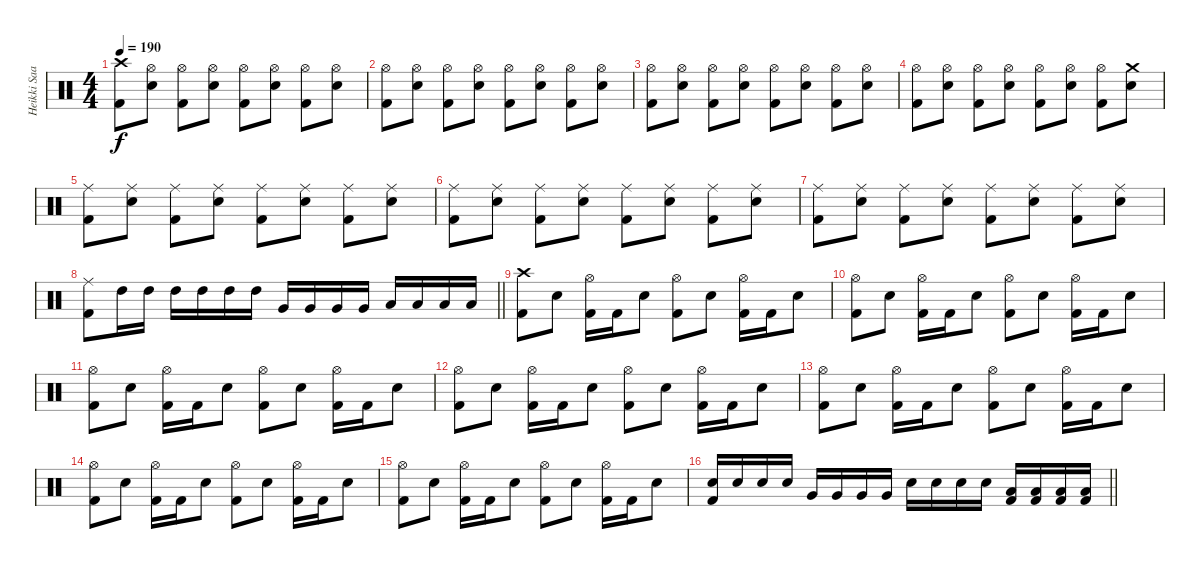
\track ("Heikki Saari" "Heikki Saa") {instrument percussion}
\staff {score}
\articulation defaults
\ts (4 4)
\tempo 190
\clef neutral
\ks c
("Crash high (hit)" "Kick (hit) 2").8{dy f} ("Hi-Hat (open)" "Snare (hit) 2").8 ("Hi-Hat (open)" "Kick (hit) 2").8 ("Hi-Hat (open)" "Snare (hit) 2").8 ("Hi-Hat (open)" "Kick (hit) 2").8 ("Hi-Hat (open)" "Snare (hit) 2").8 ("Hi-Hat (open)" "Kick (hit) 2").8 ("Hi-Hat (open)" "Snare (hit) 2").8 |
("Hi-Hat (open)" "Kick (hit) 2").8 ("Hi-Hat (open)" "Snare (hit) 2").8 ("Hi-Hat (open)" "Kick (hit) 2").8 ("Hi-Hat (open)" "Snare (hit) 2").8 ("Hi-Hat (open)" "Kick (hit) 2").8 ("Hi-Hat (open)" "Snare (hit) 2").8 ("Hi-Hat (open)" "Kick (hit) 2").8 ("Hi-Hat (open)" "Snare (hit) 2").8 |
("Hi-Hat (open)" "Kick (hit) 2").8 ("Hi-Hat (open)" "Snare (hit) 2").8 ("Hi-Hat (open)" "Kick (hit) 2").8 ("Hi-Hat (open)" "Snare (hit) 2").8 ("Hi-Hat (open)" "Kick (hit) 2").8 ("Hi-Hat (open)" "Snare (hit) 2").8 ("Hi-Hat (open)" "Kick (hit) 2").8 ("Hi-Hat (open)" "Snare (hit) 2").8 |
("Hi-Hat (open)" "Kick (hit) 2").8 ("Hi-Hat (open)" "Snare (hit) 2").8 ("Hi-Hat (open)" "Kick (hit) 2").8 ("Hi-Hat (open)" "Snare (hit) 2").8 ("Hi-Hat (open)" "Kick (hit) 2").8 ("Hi-Hat (open)" "Snare (hit) 2").8 ("Hi-Hat (open)" "Kick (hit) 2").8 ("Crash medium (hit)" "Snare (hit) 2").8 |
("Ride (middle)" "Kick (hit) 2").8 ("Ride (middle)" "Snare (hit) 2").8 ("Ride (middle)" "Kick (hit) 2").8 ("Ride (middle)" "Snare (hit) 2").8 ("Ride (middle)" "Kick (hit) 2").8 ("Ride (middle)" "Snare (hit) 2").8 ("Ride (middle)" "Kick (hit) 2").8 ("Ride (middle)" "Snare (hit) 2").8 |
("Ride (middle)" "Kick (hit) 2").8 ("Ride (middle)" "Snare (hit) 2").8 ("Ride (middle)" "Kick (hit) 2").8 ("Ride (middle)" "Snare (hit) 2").8 ("Ride (middle)" "Kick (hit) 2").8 ("Ride (middle)" "Snare (hit) 2").8 ("Ride (middle)" "Kick (hit) 2").8 ("Ride (middle)" "Snare (hit) 2").8 |
("Ride (middle)" "Kick (hit) 2").8 ("Ride (middle)" "Snare (hit) 2").8 ("Ride (middle)" "Kick (hit) 2").8 ("Ride (middle)" "Snare (hit) 2").8 ("Ride (middle)" "Kick (hit) 2").8 ("Ride (middle)" "Snare (hit) 2").8 ("Ride (middle)" "Kick (hit) 2").8 ("Ride (middle)" "Snare (hit) 2").8 |
\barLineRight lightlight
("Ride (middle)" "Kick (hit) 2").8 "High Tom (hit)".16 "High Tom (hit)".16 "High Tom (hit)".16 "High Tom (hit)".16 "High Tom (hit)".16 "High Tom (hit)".16 "Very Low Tom (hit)".16 "Very Low Tom (hit)".16 "Very Low Tom (hit)".16 "Very Low Tom (hit)".16 "Low Floor Tom (hit)".16 "Low Floor Tom (hit)".16 "Low Floor Tom (hit)".16 "Low Floor Tom (hit)".16 |
("Crash high (hit)" "Kick (hit) 2").8 "Snare (hit) 2".8 ("Hi-Hat (open)" "Kick (hit) 2").16 "Kick (hit) 2".16 "Snare (hit) 2".8 ("Hi-Hat (open)" "Kick (hit) 2").8 "Snare (hit) 2".8 ("Hi-Hat (open)" "Kick (hit) 2").16 "Kick (hit) 2".16 "Snare (hit) 2".8 |
("Hi-Hat (open)" "Kick (hit) 2").8 "Snare (hit) 2".8 ("Hi-Hat (open)" "Kick (hit) 2").16 "Kick (hit) 2".16 "Snare (hit) 2".8 ("Hi-Hat (open)" "Kick (hit) 2").8 "Snare (hit) 2".8 ("Hi-Hat (open)" "Kick (hit) 2").16 "Kick (hit) 2".16 "Snare (hit) 2".8 |
("Hi-Hat (open)" "Kick (hit) 2").8 "Snare (hit) 2".8 ("Hi-Hat (open)" "Kick (hit) 2").16 "Kick (hit) 2".16 "Snare (hit) 2".8 ("Hi-Hat (open)" "Kick (hit) 2").8 "Snare (hit) 2".8 ("Hi-Hat (open)" "Kick (hit) 2").16 "Kick (hit) 2".16 "Snare (hit) 2".8 |
("Hi-Hat (open)" "Kick (hit) 2").8 "Snare (hit) 2".8 ("Hi-Hat (open)" "Kick (hit) 2").16 "Kick (hit) 2".16 "Snare (hit) 2".8 ("Hi-Hat (open)" "Kick (hit) 2").8 "Snare (hit) 2".8 ("Hi-Hat (open)" "Kick (hit) 2").16 "Kick (hit) 2".16 "Snare (hit) 2".8 |
("Hi-Hat (open)" "Kick (hit) 2").8 "Snare (hit) 2".8 ("Hi-Hat (open)" "Kick (hit) 2").16 "Kick (hit) 2".16 "Snare (hit) 2".8 ("Hi-Hat (open)" "Kick (hit) 2").8 "Snare (hit) 2".8 ("Hi-Hat (open)" "Kick (hit) 2").16 "Kick (hit) 2".16 "Snare (hit) 2".8 |
("Hi-Hat (open)" "Kick (hit) 2").8 "Snare (hit) 2".8 ("Hi-Hat (open)" "Kick (hit) 2").16 "Kick (hit) 2".16 "Snare (hit) 2".8 ("Hi-Hat (open)" "Kick (hit) 2").8 "Snare (hit) 2".8 ("Hi-Hat (open)" "Kick (hit) 2").16 "Kick (hit) 2".16 "Snare (hit) 2".8 |
("Hi-Hat (open)" "Kick (hit) 2").8 "Snare (hit) 2".8 ("Hi-Hat (open)" "Kick (hit) 2").16 "Kick (hit) 2".16 "Snare (hit) 2".8 ("Hi-Hat (open)" "Kick (hit) 2").8 "Snare (hit) 2".8 ("Hi-Hat (open)" "Kick (hit) 2").16 "Kick (hit) 2".16 "Snare (hit) 2".8 |
\barLineRight lightlight
("Snare (hit) 2" "Kick (hit) 2").16 "Snare (hit) 2".16 "Snare (hit) 2".16 "Snare (hit) 2".16 "Very Low Tom (hit)".16 "Very Low Tom (hit)".16 "Very Low Tom (hit)".16 "Very Low Tom (hit)".16 "Snare (hit) 2".16 "Snare (hit) 2".16 "Snare (hit) 2".16 "Snare (hit) 2".16 ("Low Floor Tom (hit)" "Kick (hit) 2").16 ("Low Floor Tom (hit)" "Kick (hit) 2").16 ("Low Floor Tom (hit)" "Kick (hit) 2").16 ("Low Floor Tom (hit)" "Kick (hit) 2").16
